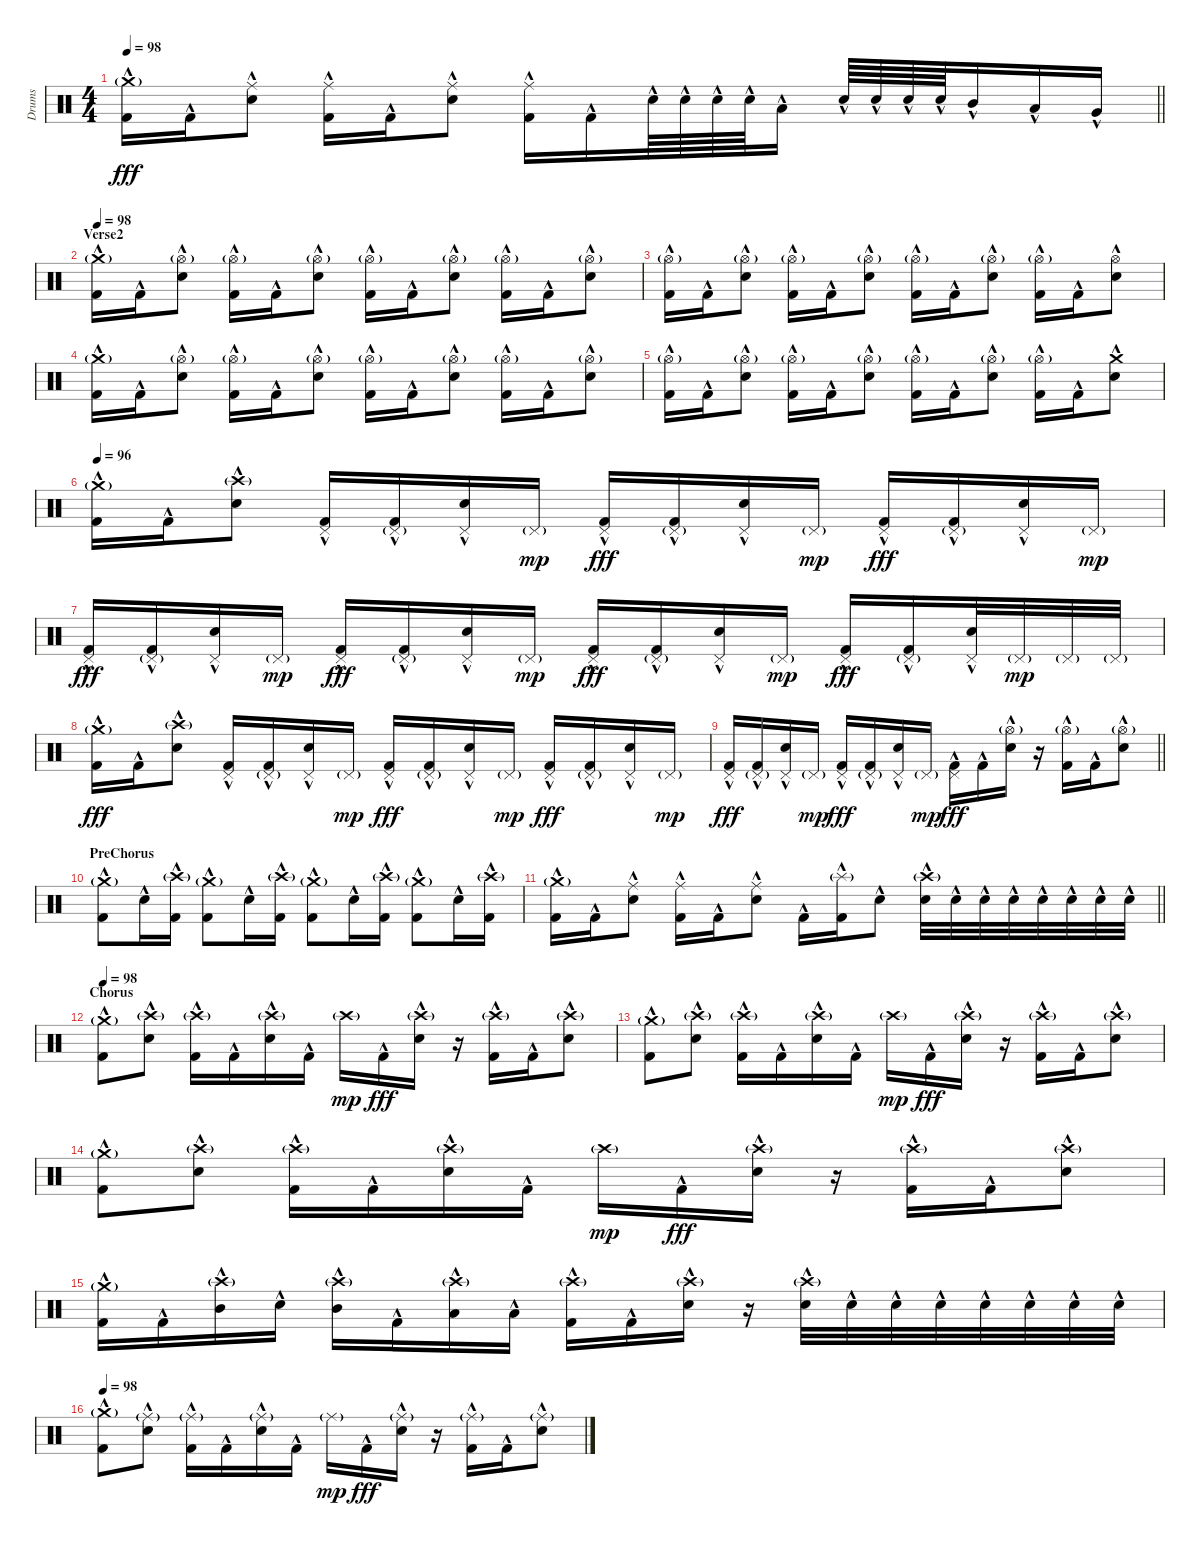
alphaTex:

\track ("Drums" "Drums") {instrument percussion}
\staff {score}
\articulation defaults
\ts (4 4)
\tempo 98
\clef neutral
\barLineRight lightlight
\ks c
("Crash medium (hit)"{g} "Kick (hit) 2"{hac}).16{dy fff} "Kick (hit) 2"{hac}.16 ("Ride (middle)" "Snare (hit) 2"{hac}).8 ("Ride (middle)" "Kick (hit) 2"{hac}).16 "Kick (hit) 2"{hac}.16 ("Ride (middle)" "Snare (hit) 2"{hac}).8 ("Ride (middle)" "Kick (hit) 2"{hac}).16 "Kick (hit) 2"{hac}.16 "Snare (hit) 2"{hac}.64 "Snare (hit) 2"{hac}.64 "Snare (hit) 2"{hac}.64 "Snare (hit) 2"{hac}.64 "Low Tom (hit)"{hac}.16 "Snare (hit) 2"{hac}.64 "Snare (hit) 2"{hac}.64 "Snare (hit) 2"{hac}.64 "Snare (hit) 2"{hac}.64 "Mid Tom (hit)"{hac}.16 "Low Tom (hit)"{hac}.16 "Very Low Tom (hit)"{hac}.16 |
\section ("" "Verse2")
\tempo 98
("Crash medium (hit)"{g} "Kick (hit) 2"{hac}).16 "Kick (hit) 2"{hac}.16 ("Hi-Hat (open)"{g} "Snare (hit) 2"{hac}).8 ("Hi-Hat (open)"{g} "Kick (hit) 2"{hac}).16 "Kick (hit) 2"{hac}.16 ("Hi-Hat (open)"{g} "Snare (hit) 2"{hac}).8 ("Hi-Hat (open)"{g} "Kick (hit) 2"{hac}).16 "Kick (hit) 2"{hac}.16 ("Hi-Hat (open)"{g} "Snare (hit) 2"{hac}).8 ("Hi-Hat (open)"{g} "Kick (hit) 2"{hac}).16 "Kick (hit) 2"{hac}.16 ("Hi-Hat (open)"{g} "Snare (hit) 2"{hac}).8 |
("Hi-Hat (open)"{g} "Kick (hit) 2"{hac}).16 "Kick (hit) 2"{hac}.16 ("Hi-Hat (open)"{g} "Snare (hit) 2"{hac}).8 ("Hi-Hat (open)"{g} "Kick (hit) 2"{hac}).16 "Kick (hit) 2"{hac}.16 ("Hi-Hat (open)"{g} "Snare (hit) 2"{hac}).8 ("Hi-Hat (open)"{g} "Kick (hit) 2"{hac}).16 "Kick (hit) 2"{hac}.16 ("Hi-Hat (open)"{g} "Snare (hit) 2"{hac}).8 ("Hi-Hat (open)"{g} "Kick (hit) 2"{hac}).16 "Kick (hit) 2"{hac}.16 ("Hi-Hat (open)" "Snare (hit) 2"{hac}).8 |
("Crash medium (hit)"{g} "Kick (hit) 2"{hac}).16 "Kick (hit) 2"{hac}.16 ("Hi-Hat (open)"{g} "Snare (hit) 2"{hac}).8 ("Hi-Hat (open)"{g} "Kick (hit) 2"{hac}).16 "Kick (hit) 2"{hac}.16 ("Hi-Hat (open)"{g} "Snare (hit) 2"{hac}).8 ("Hi-Hat (open)"{g} "Kick (hit) 2"{hac}).16 "Kick (hit) 2"{hac}.16 ("Hi-Hat (open)"{g} "Snare (hit) 2"{hac}).8 ("Hi-Hat (open)"{g} "Kick (hit) 2"{hac}).16 "Kick (hit) 2"{hac}.16 ("Hi-Hat (open)"{g} "Snare (hit) 2"{hac}).8 |
("Hi-Hat (open)"{g} "Kick (hit) 2"{hac}).16 "Kick (hit) 2"{hac}.16 ("Hi-Hat (open)"{g} "Snare (hit) 2"{hac}).8 ("Hi-Hat (open)"{g} "Kick (hit) 2"{hac}).16 "Kick (hit) 2"{hac}.16 ("Hi-Hat (open)"{g} "Snare (hit) 2"{hac}).8 ("Hi-Hat (open)"{g} "Kick (hit) 2"{hac}).16 "Kick (hit) 2"{hac}.16 ("Hi-Hat (open)"{g} "Snare (hit) 2"{hac}).8 ("Hi-Hat (open)"{g} "Kick (hit) 2"{hac}).16 "Kick (hit) 2"{hac}.16 ("Crash medium (hit)" "Snare (hit) 2"{hac}).8 |
\tempo 96
("Crash medium (hit)"{g} "Kick (hit) 2"{hac}).16 "Kick (hit) 2"{hac}.16 ("Crash high (hit)"{g} "Snare (hit) 2"{hac}).8 ("Pedal Hi-Hat (hit)" "Kick (hit) 2"{hac}).16 ("Pedal Hi-Hat (hit)"{g} "Kick (hit) 2"{hac}).16 ("Pedal Hi-Hat (hit)" "Snare (hit) 2"{hac}).16 "Pedal Hi-Hat (hit)"{g}.16{dy mp} ("Pedal Hi-Hat (hit)" "Kick (hit) 2"{hac}).16{dy fff} ("Pedal Hi-Hat (hit)"{g} "Kick (hit) 2"{hac}).16 ("Pedal Hi-Hat (hit)" "Snare (hit) 2"{hac}).16 "Pedal Hi-Hat (hit)"{g}.16{dy mp} ("Pedal Hi-Hat (hit)" "Kick (hit) 2"{hac}).16{dy fff} ("Pedal Hi-Hat (hit)"{g} "Kick (hit) 2"{hac}).16 ("Pedal Hi-Hat (hit)" "Snare (hit) 2"{hac}).16 "Pedal Hi-Hat (hit)"{g}.16{dy mp} |
("Pedal Hi-Hat (hit)" "Kick (hit) 2"{hac}).16{dy fff} ("Pedal Hi-Hat (hit)"{g} "Kick (hit) 2"{hac}).16 ("Pedal Hi-Hat (hit)" "Snare (hit) 2"{hac}).16 "Pedal Hi-Hat (hit)"{g}.16{dy mp} ("Pedal Hi-Hat (hit)" "Kick (hit) 2"{hac}).16{dy fff} ("Pedal Hi-Hat (hit)"{g} "Kick (hit) 2"{hac}).16 ("Pedal Hi-Hat (hit)" "Snare (hit) 2"{hac}).16 "Pedal Hi-Hat (hit)"{g}.16{dy mp} ("Pedal Hi-Hat (hit)" "Kick (hit) 2"{hac}).16{dy fff} ("Pedal Hi-Hat (hit)"{g} "Kick (hit) 2"{hac}).16 ("Pedal Hi-Hat (hit)" "Snare (hit) 2"{hac}).16 "Pedal Hi-Hat (hit)"{g}.16{dy mp} ("Pedal Hi-Hat (hit)" "Kick (hit) 2"{hac}).16{dy fff} ("Pedal Hi-Hat (hit)"{g} "Kick (hit) 2"{hac}).16 ("Pedal Hi-Hat (hit)" "Snare (hit) 2"{hac}).32 "Pedal Hi-Hat (hit)"{g}.32{dy mp} "Pedal Hi-Hat (hit)"{g}.32 "Pedal Hi-Hat (hit)"{g}.32 |
("Crash medium (hit)"{g} "Kick (hit) 2"{hac}).16{dy fff} "Kick (hit) 2"{hac}.16 ("Crash high (hit)"{g} "Snare (hit) 2"{hac}).8 ("Pedal Hi-Hat (hit)" "Kick (hit) 2"{hac}).16 ("Pedal Hi-Hat (hit)"{g} "Kick (hit) 2"{hac}).16 ("Pedal Hi-Hat (hit)" "Snare (hit) 2"{hac}).16 "Pedal Hi-Hat (hit)"{g}.16{dy mp} ("Pedal Hi-Hat (hit)" "Kick (hit) 2"{hac}).16{dy fff} ("Pedal Hi-Hat (hit)"{g} "Kick (hit) 2"{hac}).16 ("Pedal Hi-Hat (hit)" "Snare (hit) 2"{hac}).16 "Pedal Hi-Hat (hit)"{g}.16{dy mp} ("Pedal Hi-Hat (hit)" "Kick (hit) 2"{hac}).16{dy fff} ("Pedal Hi-Hat (hit)"{g} "Kick (hit) 2"{hac}).16 ("Pedal Hi-Hat (hit)" "Snare (hit) 2"{hac}).16 "Pedal Hi-Hat (hit)"{g}.16{dy mp} |
\barLineRight lightlight
("Pedal Hi-Hat (hit)" "Kick (hit) 2"{hac}).16{dy fff} ("Pedal Hi-Hat (hit)"{g} "Kick (hit) 2"{hac}).16 ("Pedal Hi-Hat (hit)" "Snare (hit) 2"{hac}).16 "Pedal Hi-Hat (hit)"{g}.16{dy mp} ("Pedal Hi-Hat (hit)" "Kick (hit) 2"{hac}).16{dy fff} ("Pedal Hi-Hat (hit)"{g} "Kick (hit) 2"{hac}).16 ("Pedal Hi-Hat (hit)" "Snare (hit) 2"{hac}).16 "Pedal Hi-Hat (hit)"{g}.16{dy mp} ("Pedal Hi-Hat (hit)" "Kick (hit) 2"{hac}).16{dy fff} "Kick (hit) 2"{hac}.16 ("Hi-Hat (open)"{g} "Snare (hit) 2"{hac}).16 r.16 ("Hi-Hat (open)"{g} "Kick (hit) 2"{hac}).16 "Kick (hit) 2"{hac}.16 ("Hi-Hat (open)"{g} "Snare (hit) 2"{hac}).8 |
\section ("" "PreChorus")
("Crash medium (hit)"{g} "Kick (hit) 2"{hac}).8 "Snare (hit) 2"{hac}.16 ("Crash high (hit)"{g} "Kick (hit) 2"{hac}).16 ("Crash medium (hit)"{g} "Kick (hit) 2"{hac}).8 "Snare (hit) 2"{hac}.16 ("Crash high (hit)"{g} "Kick (hit) 2"{hac}).16 ("Crash medium (hit)"{g} "Kick (hit) 2"{hac}).8 "Snare (hit) 2"{hac}.16 ("Crash high (hit)"{g} "Kick (hit) 2"{hac}).16 ("Crash medium (hit)"{g} "Kick (hit) 2"{hac}).8 "Snare (hit) 2"{hac}.16 ("Crash high (hit)"{g} "Kick (hit) 2"{hac}).16 |
\barLineRight lightlight
("Crash medium (hit)"{g} "Kick (hit) 2"{hac}).16 "Kick (hit) 2"{hac}.16 ("Ride (middle)" "Snare (hit) 2"{hac}).8 ("Ride (middle)" "Kick (hit) 2"{hac}).16 "Kick (hit) 2"{hac}.16 ("Ride (middle)" "Snare (hit) 2"{hac}).8 "Kick (hit) 2"{hac}.16 ("Splash (hit)"{g} "Kick (hit) 2"{hac}).16 "Snare (hit) 2"{hac}.8 ("Crash high (hit)"{g} "Snare (hit) 2"{hac}).32 "Snare (hit) 2"{hac}.32 "Snare (hit) 2"{hac}.32 "Snare (hit) 2"{hac}.32 "Snare (hit) 2"{hac}.32 "Snare (hit) 2"{hac}.32 "Snare (hit) 2"{hac}.32 "Snare (hit) 2"{hac}.32 |
\section ("" "Chorus")
\tempo 98
("Crash medium (hit)"{g} "Kick (hit) 2"{hac}).8 ("Crash high (hit)"{g} "Snare (hit) 2"{hac}).8 ("Crash high (hit)"{g} "Kick (hit) 2"{hac}).16 "Kick (hit) 2"{hac}.16 ("Crash high (hit)"{g} "Snare (hit) 2"{hac}).16 "Kick (hit) 2"{hac}.16 "Crash high (hit)"{g}.16{dy mp} "Kick (hit) 2"{hac}.16{dy fff} ("Crash high (hit)"{g} "Snare (hit) 2"{hac}).16 r.16 ("Crash high (hit)"{g} "Kick (hit) 2"{hac}).16 "Kick (hit) 2"{hac}.16 ("Crash high (hit)"{g} "Snare (hit) 2"{hac}).8 |
("Crash medium (hit)"{g} "Kick (hit) 2"{hac}).8 ("Crash high (hit)"{g} "Snare (hit) 2"{hac}).8 ("Crash high (hit)"{g} "Kick (hit) 2"{hac}).16 "Kick (hit) 2"{hac}.16 ("Crash high (hit)"{g} "Snare (hit) 2"{hac}).16 "Kick (hit) 2"{hac}.16 "Crash high (hit)"{g}.16{dy mp} "Kick (hit) 2"{hac}.16{dy fff} ("Crash high (hit)"{g} "Snare (hit) 2"{hac}).16 r.16 ("Crash high (hit)"{g} "Kick (hit) 2"{hac}).16 "Kick (hit) 2"{hac}.16 ("Crash high (hit)"{g} "Snare (hit) 2"{hac}).8 |
("Crash medium (hit)"{g} "Kick (hit) 2"{hac}).8 ("Crash high (hit)"{g} "Snare (hit) 2"{hac}).8 ("Crash high (hit)"{g} "Kick (hit) 2"{hac}).16 "Kick (hit) 2"{hac}.16 ("Crash high (hit)"{g} "Snare (hit) 2"{hac}).16 "Kick (hit) 2"{hac}.16 "Crash high (hit)"{g}.16{dy mp} "Kick (hit) 2"{hac}.16{dy fff} ("Crash high (hit)"{g} "Snare (hit) 2"{hac}).16 r.16 ("Crash high (hit)"{g} "Kick (hit) 2"{hac}).16 "Kick (hit) 2"{hac}.16 ("Crash high (hit)"{g} "Snare (hit) 2"{hac}).8 |
("Crash medium (hit)"{g} "Kick (hit) 2"{hac}).16 "Kick (hit) 2"{hac}.16 ("Crash high (hit)"{g} "Mid Tom (hit)"{hac}).16 "Snare (hit) 2"{hac}.16 ("Crash high (hit)"{g} "Mid Tom (hit)"{hac}).16 "Kick (hit) 2"{hac}.16 ("Crash high (hit)"{g} "Low Tom (hit)"{hac}).16 "Low Tom (hit)"{hac}.16 ("Crash high (hit)"{g} "Kick (hit) 2"{hac}).16 "Kick (hit) 2"{hac}.16 ("Crash high (hit)"{g} "Snare (hit) 2"{hac}).16 r.16 ("Crash high (hit)"{g} "Snare (hit) 2"{hac}).32 "Snare (hit) 2"{hac}.32 "Snare (hit) 2"{hac}.32 "Snare (hit) 2"{hac}.32 "Snare (hit) 2"{hac}.32 "Snare (hit) 2"{hac}.32 "Snare (hit) 2"{hac}.32 "Snare (hit) 2"{hac}.32 |
\tempo 98
("Crash medium (hit)"{g} "Kick (hit) 2"{hac}).8 ("Ride (middle)"{g} "Snare (hit) 2"{hac}).8 ("Ride (middle)"{g} "Kick (hit) 2"{hac}).16 "Kick (hit) 2"{hac}.16 ("Ride (middle)"{g} "Snare (hit) 2"{hac}).16 "Kick (hit) 2"{hac}.16 "Ride (middle)"{g}.16{dy mp} "Kick (hit) 2"{hac}.16{dy fff} ("Ride (middle)"{g} "Snare (hit) 2"{hac}).16 r.16 ("Ride (middle)"{g} "Kick (hit) 2"{hac}).16 "Kick (hit) 2"{hac}.16 ("Ride (middle)"{g} "Snare (hit) 2"{hac}).8
